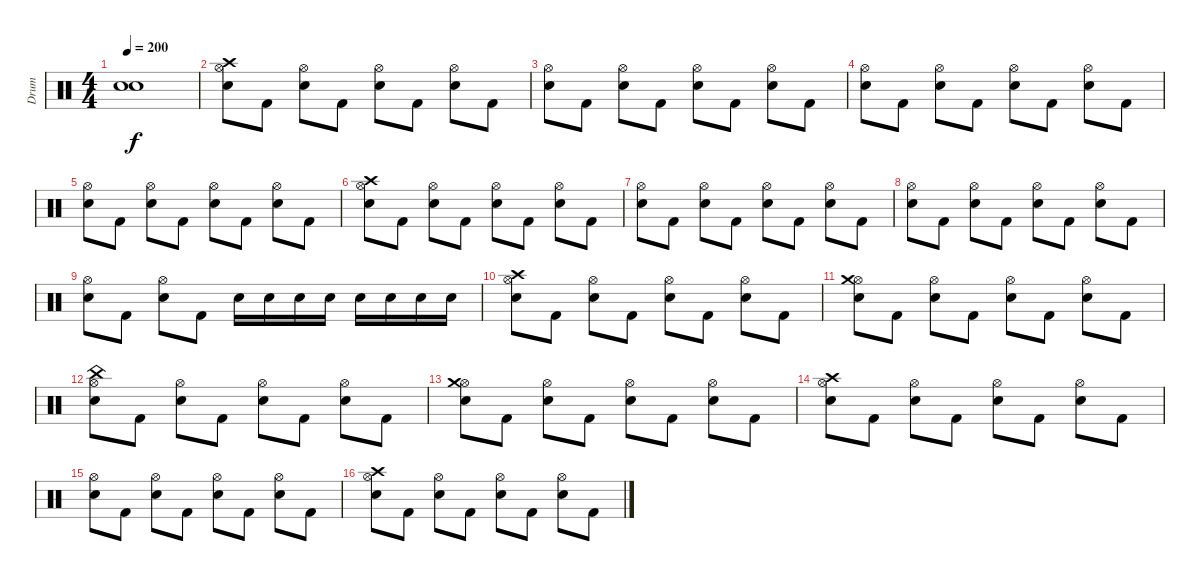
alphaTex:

\track ("Drum" "Drum") {instrument percussion}
\staff {score}
\articulation defaults
\ts (4 4)
\tempo 200
\clef neutral
\ks c
("Electric Snare (hit)" "Electric Snare (hit)").1{dy f} |
("Hi-Hat (open)" "Electric Snare (hit)" "Crash high (hit)").8 "Kick (hit) 2".8 ("Hi-Hat (open)" "Electric Snare (hit)").8 "Kick (hit) 2".8 ("Hi-Hat (open)" "Electric Snare (hit)").8 "Kick (hit) 2".8 ("Hi-Hat (open)" "Electric Snare (hit)").8 "Kick (hit) 2".8 |
("Hi-Hat (open)" "Electric Snare (hit)").8 "Kick (hit) 2".8 ("Hi-Hat (open)" "Electric Snare (hit)").8 "Kick (hit) 2".8 ("Hi-Hat (open)" "Electric Snare (hit)").8 "Kick (hit) 2".8 ("Hi-Hat (open)" "Electric Snare (hit)").8 "Kick (hit) 2".8 |
("Hi-Hat (open)" "Electric Snare (hit)").8 "Kick (hit) 2".8 ("Hi-Hat (open)" "Electric Snare (hit)").8 "Kick (hit) 2".8 ("Hi-Hat (open)" "Electric Snare (hit)").8 "Kick (hit) 2".8 ("Hi-Hat (open)" "Electric Snare (hit)").8 "Kick (hit) 2".8 |
("Hi-Hat (open)" "Electric Snare (hit)").8 "Kick (hit) 2".8 ("Hi-Hat (open)" "Electric Snare (hit)").8 "Kick (hit) 2".8 ("Hi-Hat (open)" "Electric Snare (hit)").8 "Kick (hit) 2".8 ("Hi-Hat (open)" "Electric Snare (hit)").8 "Kick (hit) 2".8 |
("Hi-Hat (open)" "Electric Snare (hit)" "Crash high (hit)").8 "Kick (hit) 2".8 ("Hi-Hat (open)" "Electric Snare (hit)").8 "Kick (hit) 2".8 ("Hi-Hat (open)" "Electric Snare (hit)").8 "Kick (hit) 2".8 ("Hi-Hat (open)" "Electric Snare (hit)").8 "Kick (hit) 2".8 |
("Hi-Hat (open)" "Electric Snare (hit)").8 "Kick (hit) 2".8 ("Hi-Hat (open)" "Electric Snare (hit)").8 "Kick (hit) 2".8 ("Hi-Hat (open)" "Electric Snare (hit)").8 "Kick (hit) 2".8 ("Hi-Hat (open)" "Electric Snare (hit)").8 "Kick (hit) 2".8 |
("Hi-Hat (open)" "Electric Snare (hit)").8 "Kick (hit) 2".8 ("Hi-Hat (open)" "Electric Snare (hit)").8 "Kick (hit) 2".8 ("Hi-Hat (open)" "Electric Snare (hit)").8 "Kick (hit) 2".8 ("Hi-Hat (open)" "Electric Snare (hit)").8 "Kick (hit) 2".8 |
("Hi-Hat (open)" "Electric Snare (hit)").8 "Kick (hit) 2".8 ("Hi-Hat (open)" "Electric Snare (hit)").8 "Kick (hit) 2".8 "Electric Snare (hit)".16 "Electric Snare (hit)".16 "Electric Snare (hit)".16 "Electric Snare (hit)".16 "Electric Snare (hit)".16 "Electric Snare (hit)".16 "Electric Snare (hit)".16 "Electric Snare (hit)".16 |
("Hi-Hat (open)" "Electric Snare (hit)" "Crash high (hit)").8 "Kick (hit) 2".8 ("Hi-Hat (open)" "Electric Snare (hit)").8 "Kick (hit) 2".8 ("Hi-Hat (open)" "Electric Snare (hit)").8 "Kick (hit) 2".8 ("Hi-Hat (open)" "Electric Snare (hit)").8 "Kick (hit) 2".8 |
("Hi-Hat (open)" "Electric Snare (hit)" "Crash medium (hit)").8 "Kick (hit) 2".8 ("Hi-Hat (open)" "Electric Snare (hit)").8 "Kick (hit) 2".8 ("Hi-Hat (open)" "Electric Snare (hit)").8 "Kick (hit) 2".8 ("Hi-Hat (open)" "Electric Snare (hit)").8 "Kick (hit) 2".8 |
("Hi-Hat (open)" "Electric Snare (hit)" "China (hit)").8 "Kick (hit) 2".8 ("Hi-Hat (open)" "Electric Snare (hit)").8 "Kick (hit) 2".8 ("Hi-Hat (open)" "Electric Snare (hit)").8 "Kick (hit) 2".8 ("Hi-Hat (open)" "Electric Snare (hit)").8 "Kick (hit) 2".8 |
("Hi-Hat (open)" "Electric Snare (hit)" "Crash medium (hit)").8 "Kick (hit) 2".8 ("Hi-Hat (open)" "Electric Snare (hit)").8 "Kick (hit) 2".8 ("Hi-Hat (open)" "Electric Snare (hit)").8 "Kick (hit) 2".8 ("Hi-Hat (open)" "Electric Snare (hit)").8 "Kick (hit) 2".8 |
("Hi-Hat (open)" "Electric Snare (hit)" "Crash high (hit)").8 "Kick (hit) 2".8 ("Hi-Hat (open)" "Electric Snare (hit)").8 "Kick (hit) 2".8 ("Hi-Hat (open)" "Electric Snare (hit)").8 "Kick (hit) 2".8 ("Hi-Hat (open)" "Electric Snare (hit)").8 "Kick (hit) 2".8 |
("Hi-Hat (open)" "Electric Snare (hit)").8 "Kick (hit) 2".8 ("Hi-Hat (open)" "Electric Snare (hit)").8 "Kick (hit) 2".8 ("Hi-Hat (open)" "Electric Snare (hit)").8 "Kick (hit) 2".8 ("Hi-Hat (open)" "Electric Snare (hit)").8 "Kick (hit) 2".8 |
("Hi-Hat (open)" "Electric Snare (hit)" "Crash high (hit)").8 "Kick (hit) 2".8 ("Hi-Hat (open)" "Electric Snare (hit)").8 "Kick (hit) 2".8 ("Hi-Hat (open)" "Electric Snare (hit)").8 "Kick (hit) 2".8 ("Hi-Hat (open)" "Electric Snare (hit)").8 "Kick (hit) 2".8
